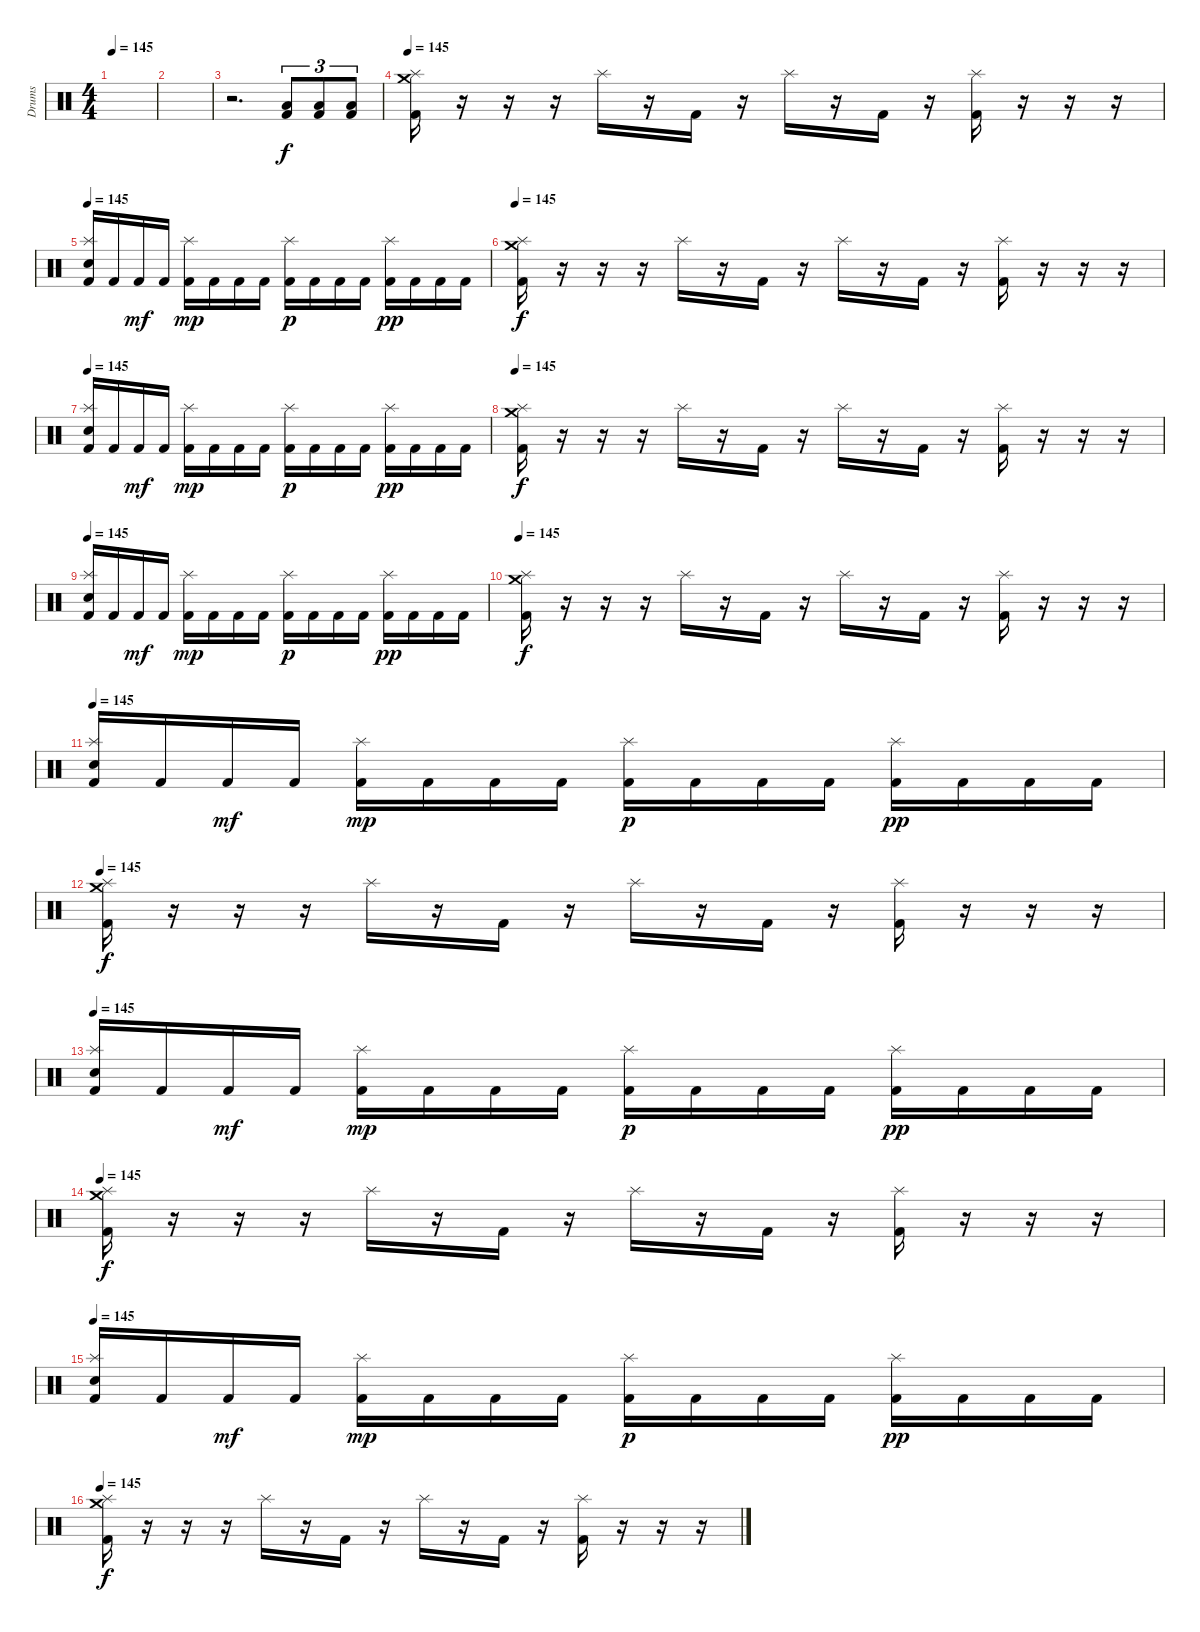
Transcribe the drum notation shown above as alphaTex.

\track ("Drums" "Drums") {instrument percussion}
\staff {score}
\articulation defaults
\ts (4 4)
\tempo 145
\clef neutral
\ks c
|
|
r.2{d} ("Low Floor Tom (hit)" "Kick (hit) 2").8{tu (3 2)} ("Low Floor Tom (hit)" "Kick (hit) 2").8{tu (3 2)} ("Low Floor Tom (hit)" "Kick (hit) 2").8{tu (3 2)} |
\tempo 145
("Crash medium (hit)" "Splash (hit)" "Kick (hit) 2").16 r.16 r.16 r.16 "Splash (hit)".16 r.16 "Kick (hit) 2".16 r.16 "Splash (hit)".16 r.16 "Kick (hit) 2".16 r.16 ("Splash (hit)" "Kick (hit) 2").16 r.16 r.16 r.16 |
\tempo 145
("Splash (hit)" "Electric Snare (hit)" "Kick (hit) 2").16 "Kick (hit) 2".16 "Kick (hit) 2".16{dy mf} "Kick (hit) 2".16 ("Splash (hit)" "Kick (hit) 2").16{dy mp} "Kick (hit) 2".16 "Kick (hit) 2".16 "Kick (hit) 2".16 ("Splash (hit)" "Kick (hit) 2").16{dy p} "Kick (hit) 2".16 "Kick (hit) 2".16 "Kick (hit) 2".16 ("Splash (hit)" "Kick (hit) 2").16{dy pp} "Kick (hit) 2".16 "Kick (hit) 2".16 "Kick (hit) 2".16 |
\tempo 145
("Crash medium (hit)" "Splash (hit)" "Kick (hit) 2").16{dy f} r.16 r.16 r.16 "Splash (hit)".16 r.16 "Kick (hit) 2".16 r.16 "Splash (hit)".16 r.16 "Kick (hit) 2".16 r.16 ("Splash (hit)" "Kick (hit) 2").16 r.16 r.16 r.16 |
\tempo 145
("Splash (hit)" "Electric Snare (hit)" "Kick (hit) 2").16 "Kick (hit) 2".16 "Kick (hit) 2".16{dy mf} "Kick (hit) 2".16 ("Splash (hit)" "Kick (hit) 2").16{dy mp} "Kick (hit) 2".16 "Kick (hit) 2".16 "Kick (hit) 2".16 ("Splash (hit)" "Kick (hit) 2").16{dy p} "Kick (hit) 2".16 "Kick (hit) 2".16 "Kick (hit) 2".16 ("Splash (hit)" "Kick (hit) 2").16{dy pp} "Kick (hit) 2".16 "Kick (hit) 2".16 "Kick (hit) 2".16 |
\tempo 145
("Crash medium (hit)" "Splash (hit)" "Kick (hit) 2").16{dy f} r.16 r.16 r.16 "Splash (hit)".16 r.16 "Kick (hit) 2".16 r.16 "Splash (hit)".16 r.16 "Kick (hit) 2".16 r.16 ("Splash (hit)" "Kick (hit) 2").16 r.16 r.16 r.16 |
\tempo 145
("Splash (hit)" "Electric Snare (hit)" "Kick (hit) 2").16 "Kick (hit) 2".16 "Kick (hit) 2".16{dy mf} "Kick (hit) 2".16 ("Splash (hit)" "Kick (hit) 2").16{dy mp} "Kick (hit) 2".16 "Kick (hit) 2".16 "Kick (hit) 2".16 ("Splash (hit)" "Kick (hit) 2").16{dy p} "Kick (hit) 2".16 "Kick (hit) 2".16 "Kick (hit) 2".16 ("Splash (hit)" "Kick (hit) 2").16{dy pp} "Kick (hit) 2".16 "Kick (hit) 2".16 "Kick (hit) 2".16 |
\tempo 145
("Crash medium (hit)" "Splash (hit)" "Kick (hit) 2").16{dy f} r.16 r.16 r.16 "Splash (hit)".16 r.16 "Kick (hit) 2".16 r.16 "Splash (hit)".16 r.16 "Kick (hit) 2".16 r.16 ("Splash (hit)" "Kick (hit) 2").16 r.16 r.16 r.16 |
\tempo 145
("Splash (hit)" "Electric Snare (hit)" "Kick (hit) 2").16 "Kick (hit) 2".16 "Kick (hit) 2".16{dy mf} "Kick (hit) 2".16 ("Splash (hit)" "Kick (hit) 2").16{dy mp} "Kick (hit) 2".16 "Kick (hit) 2".16 "Kick (hit) 2".16 ("Splash (hit)" "Kick (hit) 2").16{dy p} "Kick (hit) 2".16 "Kick (hit) 2".16 "Kick (hit) 2".16 ("Splash (hit)" "Kick (hit) 2").16{dy pp} "Kick (hit) 2".16 "Kick (hit) 2".16 "Kick (hit) 2".16 |
\tempo 145
("Crash medium (hit)" "Splash (hit)" "Kick (hit) 2").16{dy f} r.16 r.16 r.16 "Splash (hit)".16 r.16 "Kick (hit) 2".16 r.16 "Splash (hit)".16 r.16 "Kick (hit) 2".16 r.16 ("Splash (hit)" "Kick (hit) 2").16 r.16 r.16 r.16 |
\tempo 145
("Splash (hit)" "Electric Snare (hit)" "Kick (hit) 2").16 "Kick (hit) 2".16 "Kick (hit) 2".16{dy mf} "Kick (hit) 2".16 ("Splash (hit)" "Kick (hit) 2").16{dy mp} "Kick (hit) 2".16 "Kick (hit) 2".16 "Kick (hit) 2".16 ("Splash (hit)" "Kick (hit) 2").16{dy p} "Kick (hit) 2".16 "Kick (hit) 2".16 "Kick (hit) 2".16 ("Splash (hit)" "Kick (hit) 2").16{dy pp} "Kick (hit) 2".16 "Kick (hit) 2".16 "Kick (hit) 2".16 |
\tempo 145
("Crash medium (hit)" "Splash (hit)" "Kick (hit) 2").16{dy f} r.16 r.16 r.16 "Splash (hit)".16 r.16 "Kick (hit) 2".16 r.16 "Splash (hit)".16 r.16 "Kick (hit) 2".16 r.16 ("Splash (hit)" "Kick (hit) 2").16 r.16 r.16 r.16 |
\tempo 145
("Splash (hit)" "Electric Snare (hit)" "Kick (hit) 2").16 "Kick (hit) 2".16 "Kick (hit) 2".16{dy mf} "Kick (hit) 2".16 ("Splash (hit)" "Kick (hit) 2").16{dy mp} "Kick (hit) 2".16 "Kick (hit) 2".16 "Kick (hit) 2".16 ("Splash (hit)" "Kick (hit) 2").16{dy p} "Kick (hit) 2".16 "Kick (hit) 2".16 "Kick (hit) 2".16 ("Splash (hit)" "Kick (hit) 2").16{dy pp} "Kick (hit) 2".16 "Kick (hit) 2".16 "Kick (hit) 2".16 |
\tempo 145
("Crash medium (hit)" "Splash (hit)" "Kick (hit) 2").16{dy f} r.16 r.16 r.16 "Splash (hit)".16 r.16 "Kick (hit) 2".16 r.16 "Splash (hit)".16 r.16 "Kick (hit) 2".16 r.16 ("Splash (hit)" "Kick (hit) 2").16 r.16 r.16 r.16
